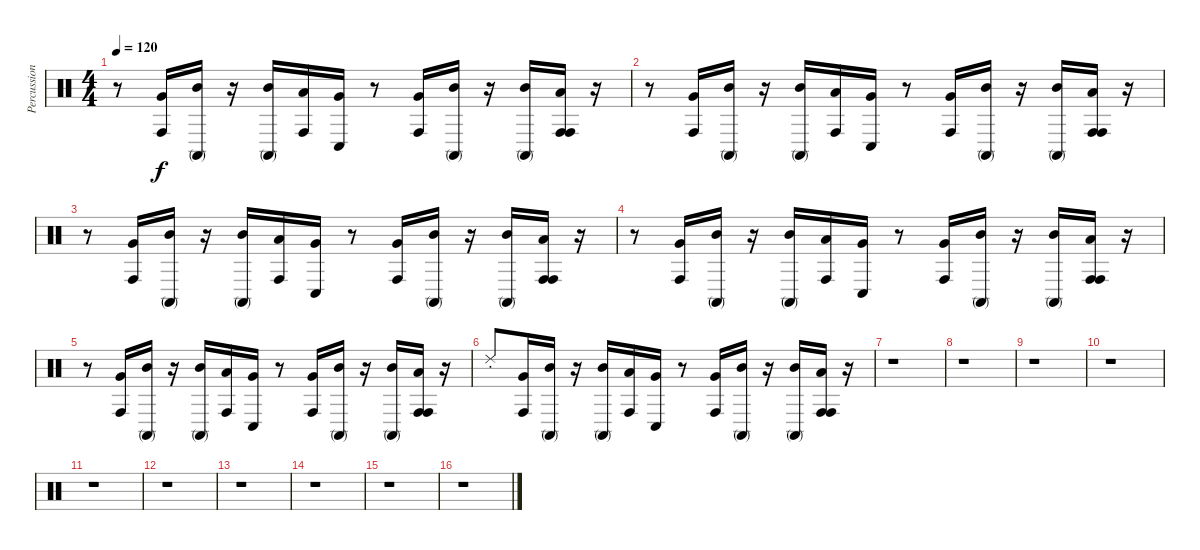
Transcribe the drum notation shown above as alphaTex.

\track ("Percussions" "Percussion") {instrument percussion}
\staff {score}
\articulation defaults
\ts (4 4)
\tempo 120
\clef neutral
\ks c
r.8{dy fff} ("Conga high (hit)" "Very Low Tom (hit)").16{dy f} ("Conga high (mute)" "Mid Tom (hit)").16 r.16 ("Conga high (mute)" "Mid Tom (hit)").16 ("Conga high (hit)" "Low Tom (hit)").16 ("Conga low (hit)" "Very Low Tom (hit)").16 r.8 ("Conga high (hit)" "Very Low Tom (hit)").16 ("Conga high (mute)" "Mid Tom (hit)").16 r.16 ("Conga high (mute)" "Mid Tom (hit)").16 ("Conga high (hit)" "Conga high (hit)" "Low Tom (hit)").16 r.16 |
r.8 ("Conga high (hit)" "Very Low Tom (hit)").16 ("Conga high (mute)" "Mid Tom (hit)").16 r.16 ("Conga high (mute)" "Mid Tom (hit)").16 ("Conga high (hit)" "Low Tom (hit)").16 ("Conga low (hit)" "Very Low Tom (hit)").16 r.8 ("Conga high (hit)" "Very Low Tom (hit)").16 ("Conga high (mute)" "Mid Tom (hit)").16 r.16 ("Conga high (mute)" "Mid Tom (hit)").16 ("Conga high (hit)" "Conga high (hit)" "Low Tom (hit)").16 r.16 |
r.8 ("Conga high (hit)" "Very Low Tom (hit)").16 ("Conga high (mute)" "Mid Tom (hit)").16 r.16 ("Conga high (mute)" "Mid Tom (hit)").16 ("Conga high (hit)" "Low Tom (hit)").16 ("Conga low (hit)" "Very Low Tom (hit)").16 r.8 ("Conga high (hit)" "Very Low Tom (hit)").16 ("Conga high (mute)" "Mid Tom (hit)").16 r.16 ("Conga high (mute)" "Mid Tom (hit)").16 ("Conga high (hit)" "Conga high (hit)" "Low Tom (hit)").16 r.16 |
r.8 ("Conga high (hit)" "Very Low Tom (hit)").16 ("Conga high (mute)" "Mid Tom (hit)").16 r.16 ("Conga high (mute)" "Mid Tom (hit)").16 ("Conga high (hit)" "Low Tom (hit)").16 ("Conga low (hit)" "Very Low Tom (hit)").16 r.8 ("Conga high (hit)" "Very Low Tom (hit)").16 ("Conga high (mute)" "Mid Tom (hit)").16 r.16 ("Conga high (mute)" "Mid Tom (hit)").16 ("Conga high (hit)" "Conga high (hit)" "Low Tom (hit)").16 r.16 |
r.8 ("Conga high (hit)" "Very Low Tom (hit)").16 ("Conga high (mute)" "Mid Tom (hit)").16 r.16 ("Conga high (mute)" "Mid Tom (hit)").16 ("Conga high (hit)" "Low Tom (hit)").16 ("Conga low (hit)" "Very Low Tom (hit)").16 r.8 ("Conga high (hit)" "Very Low Tom (hit)").16 ("Conga high (mute)" "Mid Tom (hit)").16 r.16 ("Conga high (mute)" "Mid Tom (hit)").16 ("Conga high (hit)" "Conga high (hit)" "Low Tom (hit)").16 r.16 |
"Ride (choke) 2".8 ("Conga high (hit)" "Very Low Tom (hit)").16 ("Conga high (mute)" "Mid Tom (hit)").16 r.16 ("Conga high (mute)" "Mid Tom (hit)").16 ("Conga high (hit)" "Low Tom (hit)").16 ("Conga low (hit)" "Very Low Tom (hit)").16 r.8 ("Conga high (hit)" "Very Low Tom (hit)").16 ("Conga high (mute)" "Mid Tom (hit)").16 r.16 ("Conga high (mute)" "Mid Tom (hit)").16 ("Conga high (hit)" "Conga high (hit)" "Low Tom (hit)").16 r.16 |
r.1 |
r.1 |
r.1 |
r.1 |
r.1 |
r.1 |
r.1 |
r.1 |
r.1 |
r.1
